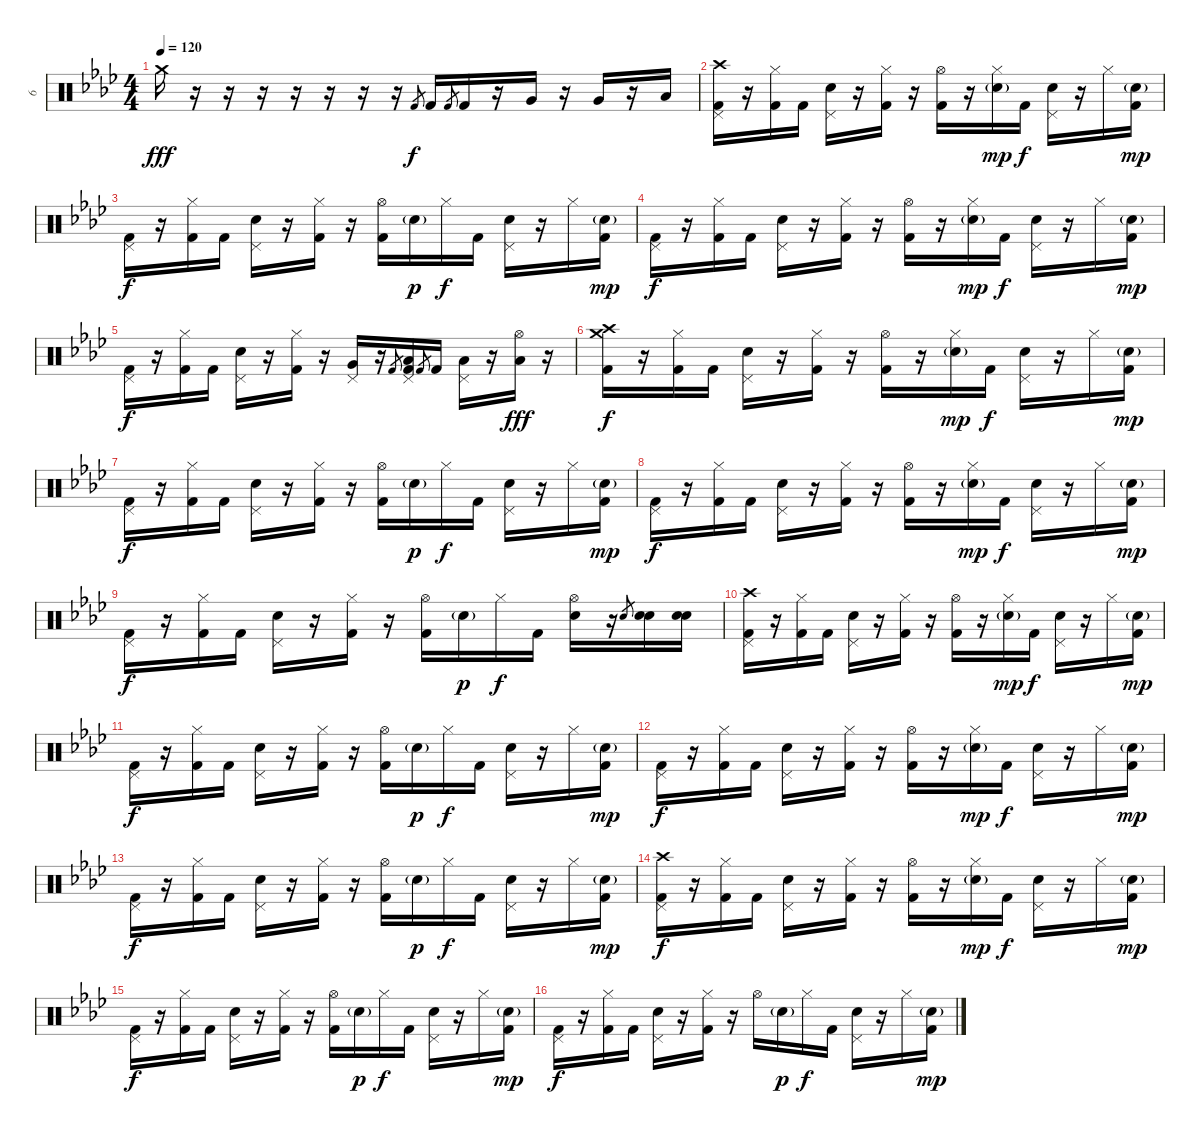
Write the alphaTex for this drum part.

\track ("6" "6") {instrument percussion}
\staff {score}
\articulation defaults
\ts (4 4)
\tempo 120
\clef neutral
\ks fminor "Crash medium (hit)".16{dy fff}
r.16 r.16 r.16 r.16 r.16 r.16 r.16 "Kick (hit) 2".8{gr dy f} "Kick (hit) 2".16 "Kick (hit) 2".8{gr} "Kick (hit) 2".16 r.16 "Very Low Tom (hit)".16 r.16 "Very Low Tom (hit)".16 r.16 "Low Tom (hit)".16 |
("Pedal Hi-Hat (hit)" "Crash high (hit)" "Kick (hit) 2").16 r.16 ("Hi-Hat (closed)" "Kick (hit) 2").16 "Kick (hit) 2".16 ("Pedal Hi-Hat (hit)" "Electric Snare (hit)").16 r.16 ("Hi-Hat (closed)" "Kick (hit) 2").16 r.16 ("Hi-Hat (open)" "Kick (hit) 2").16 r.16 ("Hi-Hat (closed)" "Electric Snare (hit)"{g}).16{dy mp} "Kick (hit) 2".16{dy f} ("Pedal Hi-Hat (hit)" "Electric Snare (hit)").16 r.16 "Hi-Hat (closed)".16 ("Electric Snare (hit)"{g} "Kick (hit) 2").16{dy mp} |
("Pedal Hi-Hat (hit)" "Kick (hit) 2").16{dy f} r.16 ("Hi-Hat (closed)" "Kick (hit) 2").16 "Kick (hit) 2".16 ("Pedal Hi-Hat (hit)" "Electric Snare (hit)").16 r.16 ("Hi-Hat (closed)" "Kick (hit) 2").16 r.16 ("Hi-Hat (open)" "Kick (hit) 2").16 "Electric Snare (hit)"{g}.16{dy p} "Hi-Hat (closed)".16{dy f} "Kick (hit) 2".16 ("Pedal Hi-Hat (hit)" "Electric Snare (hit)").16 r.16 "Hi-Hat (closed)".16 ("Electric Snare (hit)"{g} "Kick (hit) 2").16{dy mp} |
("Pedal Hi-Hat (hit)" "Kick (hit) 2").16{dy f} r.16 ("Hi-Hat (closed)" "Kick (hit) 2").16 "Kick (hit) 2".16 ("Pedal Hi-Hat (hit)" "Electric Snare (hit)").16 r.16 ("Hi-Hat (closed)" "Kick (hit) 2").16 r.16 ("Hi-Hat (open)" "Kick (hit) 2").16 r.16 ("Hi-Hat (closed)" "Electric Snare (hit)"{g}).16{dy mp} "Kick (hit) 2".16{dy f} ("Pedal Hi-Hat (hit)" "Electric Snare (hit)").16 r.16 "Hi-Hat (closed)".16 ("Electric Snare (hit)"{g} "Kick (hit) 2").16{dy mp} |
("Pedal Hi-Hat (hit)" "Kick (hit) 2").16{dy f} r.16 ("Hi-Hat (closed)" "Kick (hit) 2").16 "Kick (hit) 2".16 ("Pedal Hi-Hat (hit)" "Electric Snare (hit)").16 r.16 ("Hi-Hat (closed)" "Kick (hit) 2").16 r.16 ("Pedal Hi-Hat (hit)" "Very Low Tom (hit)").16 r.16 "Kick (hit) 2".8{gr} ("Pedal Hi-Hat (hit)" "Low Tom (hit)" "Kick (hit) 2").16 "Kick (hit) 2".8{gr} "Kick (hit) 2".16 ("Pedal Hi-Hat (hit)" "Low Floor Tom (hit)").16 r.16 ("Hi-Hat (open)" "Low Tom (hit)").16{dy fff} r.16 |
("Crash medium (hit)" "Crash high (hit)" "Kick (hit) 2").16{dy f} r.16 ("Hi-Hat (closed)" "Kick (hit) 2").16 "Kick (hit) 2".16 ("Pedal Hi-Hat (hit)" "Electric Snare (hit)").16 r.16 ("Hi-Hat (closed)" "Kick (hit) 2").16 r.16 ("Hi-Hat (open)" "Kick (hit) 2").16 r.16 ("Hi-Hat (closed)" "Electric Snare (hit)"{g}).16{dy mp} "Kick (hit) 2".16{dy f} ("Pedal Hi-Hat (hit)" "Electric Snare (hit)").16 r.16 "Hi-Hat (closed)".16 ("Electric Snare (hit)"{g} "Kick (hit) 2").16{dy mp} |
("Pedal Hi-Hat (hit)" "Kick (hit) 2").16{dy f} r.16 ("Hi-Hat (closed)" "Kick (hit) 2").16 "Kick (hit) 2".16 ("Pedal Hi-Hat (hit)" "Electric Snare (hit)").16 r.16 ("Hi-Hat (closed)" "Kick (hit) 2").16 r.16 ("Hi-Hat (open)" "Kick (hit) 2").16 "Electric Snare (hit)"{g}.16{dy p} "Hi-Hat (closed)".16{dy f} "Kick (hit) 2".16 ("Pedal Hi-Hat (hit)" "Electric Snare (hit)").16 r.16 "Hi-Hat (closed)".16 ("Electric Snare (hit)"{g} "Kick (hit) 2").16{dy mp} |
("Pedal Hi-Hat (hit)" "Kick (hit) 2").16{dy f} r.16 ("Hi-Hat (closed)" "Kick (hit) 2").16 "Kick (hit) 2".16 ("Pedal Hi-Hat (hit)" "Electric Snare (hit)").16 r.16 ("Hi-Hat (closed)" "Kick (hit) 2").16 r.16 ("Hi-Hat (open)" "Kick (hit) 2").16 r.16 ("Hi-Hat (closed)" "Electric Snare (hit)"{g}).16{dy mp} "Kick (hit) 2".16{dy f} ("Pedal Hi-Hat (hit)" "Electric Snare (hit)").16 r.16 "Hi-Hat (closed)".16 ("Electric Snare (hit)"{g} "Kick (hit) 2").16{dy mp} |
("Pedal Hi-Hat (hit)" "Kick (hit) 2").16{dy f} r.16 ("Hi-Hat (closed)" "Kick (hit) 2").16 "Kick (hit) 2".16 ("Pedal Hi-Hat (hit)" "Electric Snare (hit)").16 r.16 ("Hi-Hat (closed)" "Kick (hit) 2").16 r.16 ("Hi-Hat (open)" "Kick (hit) 2").16 "Electric Snare (hit)"{g}.16{dy p} "Hi-Hat (closed)".16{dy f} "Kick (hit) 2".16 ("Hi-Hat (open)" "Electric Snare (hit)").16 r.16 "Electric Snare (hit)".8{gr} ("Electric Snare (hit)" "Electric Snare (hit)").16 ("Electric Snare (hit)" "Electric Snare (hit)").16 |
("Pedal Hi-Hat (hit)" "Crash high (hit)" "Kick (hit) 2").16 r.16 ("Hi-Hat (closed)" "Kick (hit) 2").16 "Kick (hit) 2".16 ("Pedal Hi-Hat (hit)" "Electric Snare (hit)").16 r.16 ("Hi-Hat (closed)" "Kick (hit) 2").16 r.16 ("Hi-Hat (open)" "Kick (hit) 2").16 r.16 ("Hi-Hat (closed)" "Electric Snare (hit)"{g}).16{dy mp} "Kick (hit) 2".16{dy f} ("Pedal Hi-Hat (hit)" "Electric Snare (hit)").16 r.16 "Hi-Hat (closed)".16 ("Electric Snare (hit)"{g} "Kick (hit) 2").16{dy mp} |
("Pedal Hi-Hat (hit)" "Kick (hit) 2").16{dy f} r.16 ("Hi-Hat (closed)" "Kick (hit) 2").16 "Kick (hit) 2".16 ("Pedal Hi-Hat (hit)" "Electric Snare (hit)").16 r.16 ("Hi-Hat (closed)" "Kick (hit) 2").16 r.16 ("Hi-Hat (open)" "Kick (hit) 2").16 "Electric Snare (hit)"{g}.16{dy p} "Hi-Hat (closed)".16{dy f} "Kick (hit) 2".16 ("Pedal Hi-Hat (hit)" "Electric Snare (hit)").16 r.16 "Hi-Hat (closed)".16 ("Electric Snare (hit)"{g} "Kick (hit) 2").16{dy mp} |
("Pedal Hi-Hat (hit)" "Kick (hit) 2").16{dy f} r.16 ("Hi-Hat (closed)" "Kick (hit) 2").16 "Kick (hit) 2".16 ("Pedal Hi-Hat (hit)" "Electric Snare (hit)").16 r.16 ("Hi-Hat (closed)" "Kick (hit) 2").16 r.16 ("Hi-Hat (open)" "Kick (hit) 2").16 r.16 ("Hi-Hat (closed)" "Electric Snare (hit)"{g}).16{dy mp} "Kick (hit) 2".16{dy f} ("Pedal Hi-Hat (hit)" "Electric Snare (hit)").16 r.16 "Hi-Hat (closed)".16 ("Electric Snare (hit)"{g} "Kick (hit) 2").16{dy mp} |
("Pedal Hi-Hat (hit)" "Kick (hit) 2").16{dy f} r.16 ("Hi-Hat (closed)" "Kick (hit) 2").16 "Kick (hit) 2".16 ("Pedal Hi-Hat (hit)" "Electric Snare (hit)").16 r.16 ("Hi-Hat (closed)" "Kick (hit) 2").16 r.16 ("Hi-Hat (open)" "Kick (hit) 2").16 "Electric Snare (hit)"{g}.16{dy p} "Hi-Hat (closed)".16{dy f} "Kick (hit) 2".16 ("Pedal Hi-Hat (hit)" "Electric Snare (hit)").16 r.16 "Hi-Hat (closed)".16 ("Electric Snare (hit)"{g} "Kick (hit) 2").16{dy mp} |
("Pedal Hi-Hat (hit)" "Crash high (hit)" "Kick (hit) 2").16{dy f} r.16 ("Hi-Hat (closed)" "Kick (hit) 2").16 "Kick (hit) 2".16 ("Pedal Hi-Hat (hit)" "Electric Snare (hit)").16 r.16 ("Hi-Hat (closed)" "Kick (hit) 2").16 r.16 ("Hi-Hat (open)" "Kick (hit) 2").16 r.16 ("Hi-Hat (closed)" "Electric Snare (hit)"{g}).16{dy mp} "Kick (hit) 2".16{dy f} ("Pedal Hi-Hat (hit)" "Electric Snare (hit)").16 r.16 "Hi-Hat (closed)".16 ("Electric Snare (hit)"{g} "Kick (hit) 2").16{dy mp} |
("Pedal Hi-Hat (hit)" "Kick (hit) 2").16{dy f} r.16 ("Hi-Hat (closed)" "Kick (hit) 2").16 "Kick (hit) 2".16 ("Pedal Hi-Hat (hit)" "Electric Snare (hit)").16 r.16 ("Hi-Hat (closed)" "Kick (hit) 2").16 r.16 ("Hi-Hat (open)" "Kick (hit) 2").16 "Electric Snare (hit)"{g}.16{dy p} "Hi-Hat (closed)".16{dy f} "Kick (hit) 2".16 ("Pedal Hi-Hat (hit)" "Electric Snare (hit)").16 r.16 "Hi-Hat (closed)".16 ("Electric Snare (hit)"{g} "Kick (hit) 2").16{dy mp} |
("Pedal Hi-Hat (hit)" "Kick (hit) 2").16{dy f} r.16 ("Hi-Hat (closed)" "Kick (hit) 2").16 "Kick (hit) 2".16 ("Pedal Hi-Hat (hit)" "Electric Snare (hit)").16 r.16 ("Hi-Hat (closed)" "Kick (hit) 2").16 r.16 "Hi-Hat (open)".16 "Electric Snare (hit)"{g}.16{dy p} "Hi-Hat (closed)".16{dy f} "Kick (hit) 2".16 ("Pedal Hi-Hat (hit)" "Electric Snare (hit)").16 r.16 "Hi-Hat (closed)".16 ("Electric Snare (hit)"{g} "Kick (hit) 2").16{dy mp}
